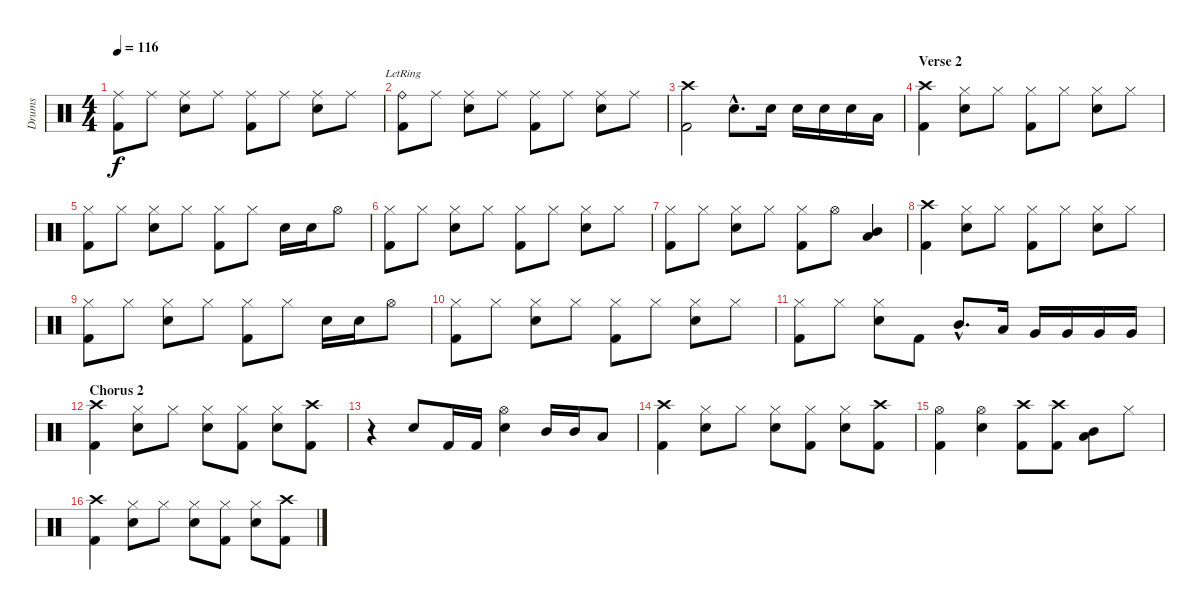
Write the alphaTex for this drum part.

\track ("Drums" "Drums") {instrument percussion}
\staff {score}
\articulation defaults
\ts (4 4)
\tempo 116
\clef neutral
\ks c
("Ride (middle)" "Kick (hit) 2").8{dy f} "Ride (middle)".8 ("Ride (middle)" "Snare (hit) 2").8 "Ride (middle)".8 ("Ride (middle)" "Kick (hit) 2").8 "Ride (middle)".8 ("Ride (middle)" "Snare (hit) 2").8 "Ride (middle)".8 |
("Ride (bell)"{lr} "Kick (hit) 2").8 "Ride (middle)".8 ("Ride (middle)" "Snare (hit) 2").8 "Ride (middle)".8 ("Ride (middle)" "Kick (hit) 2").8 "Ride (middle)".8 ("Ride (middle)" "Snare (hit) 2").8 "Ride (middle)".8 |
("Crash high (hit)" "Kick (hit) 2").2 "Snare (hit) 2"{hac}.8{d} "Snare (hit) 2".16 "Snare (hit) 2".16 "Snare (hit) 2".16 "Snare (hit) 2".16 "Low Tom (hit)".16 |
\section ("" "Verse 2")
("Crash high (hit)" "Kick (hit) 2").4 ("Hi-Hat (closed)" "Snare (hit) 2").8 "Hi-Hat (closed)".8 ("Hi-Hat (closed)" "Kick (hit) 2").8 "Hi-Hat (closed)".8 ("Hi-Hat (closed)" "Snare (hit) 2").8 "Hi-Hat (closed)".8 |
("Hi-Hat (closed)" "Kick (hit) 2").8 "Hi-Hat (closed)".8 ("Hi-Hat (closed)" "Snare (hit) 2").8 "Hi-Hat (closed)".8 ("Hi-Hat (closed)" "Kick (hit) 2").8 "Hi-Hat (closed)".8 "Snare (hit) 2".16 "Snare (hit) 2".16 "Hi-Hat (open)".8 |
("Hi-Hat (closed)" "Kick (hit) 2").8 "Hi-Hat (closed)".8 ("Hi-Hat (closed)" "Snare (hit) 2").8 "Hi-Hat (closed)".8 ("Hi-Hat (closed)" "Kick (hit) 2").8 "Hi-Hat (closed)".8 ("Hi-Hat (closed)" "Snare (hit) 2").8 "Hi-Hat (closed)".8 |
("Hi-Hat (closed)" "Kick (hit) 2").8 "Hi-Hat (closed)".8 ("Hi-Hat (closed)" "Snare (hit) 2").8 "Hi-Hat (closed)".8 ("Hi-Hat (closed)" "Kick (hit) 2").8 "Hi-Hat (open)".8 ("Low Tom (hit)" "Mid Tom (hit)").4 |
("Crash high (hit)" "Kick (hit) 2").4 ("Hi-Hat (closed)" "Snare (hit) 2").8 "Hi-Hat (closed)".8 ("Hi-Hat (closed)" "Kick (hit) 2").8 "Hi-Hat (closed)".8 ("Hi-Hat (closed)" "Snare (hit) 2").8 "Hi-Hat (closed)".8 |
("Hi-Hat (closed)" "Kick (hit) 2").8 "Hi-Hat (closed)".8 ("Hi-Hat (closed)" "Snare (hit) 2").8 "Hi-Hat (closed)".8 ("Hi-Hat (closed)" "Kick (hit) 2").8 "Hi-Hat (closed)".8 "Snare (hit) 2".16 "Snare (hit) 2".16 "Hi-Hat (open)".8 |
("Hi-Hat (closed)" "Kick (hit) 2").8 "Hi-Hat (closed)".8 ("Hi-Hat (closed)" "Snare (hit) 2").8 "Hi-Hat (closed)".8 ("Hi-Hat (closed)" "Kick (hit) 2").8 "Hi-Hat (closed)".8 ("Hi-Hat (closed)" "Snare (hit) 2").8 "Hi-Hat (closed)".8 |
("Hi-Hat (closed)" "Kick (hit) 2").8 "Hi-Hat (closed)".8 ("Hi-Hat (closed)" "Snare (hit) 2").8 "Kick (hit) 2".8 "Mid Tom (hit)"{hac}.8{d} "Low Tom (hit)".16 "Very Low Tom (hit)".16 "Very Low Tom (hit)".16 "Very Low Tom (hit)".16 "Very Low Tom (hit)".16 |
\section ("" "Chorus 2")
("Crash high (hit)" "Kick (hit) 2").4 ("Hi-Hat (closed)" "Snare (hit) 2").8 "Hi-Hat (closed)".8 ("Hi-Hat (closed)" "Snare (hit) 2").8 ("Hi-Hat (closed)" "Kick (hit) 2").8 ("Hi-Hat (closed)" "Snare (hit) 2").8 ("Crash high (hit)" "Kick (hit) 2").8 |
r.4 "Snare (hit) 2".8 "Kick (hit) 2".16 "Kick (hit) 2".16 ("Hi-Hat (open)" "Snare (hit) 2").4 "Mid Tom (hit)".16 "Mid Tom (hit)".16 "Low Tom (hit)".8 |
("Crash high (hit)" "Kick (hit) 2").4 ("Hi-Hat (closed)" "Snare (hit) 2").8 "Hi-Hat (closed)".8 ("Hi-Hat (closed)" "Snare (hit) 2").8 ("Hi-Hat (closed)" "Kick (hit) 2").8 ("Hi-Hat (closed)" "Snare (hit) 2").8 ("Crash high (hit)" "Kick (hit) 2").8 |
("Hi-Hat (open)" "Kick (hit) 2").4 ("Hi-Hat (open)" "Snare (hit) 2").4 ("Crash high (hit)" "Kick (hit) 2").8 ("Crash high (hit)" "Kick (hit) 2").8 ("Low Tom (hit)" "Mid Tom (hit)").8 "Hi-Hat (closed)".8 |
("Crash high (hit)" "Kick (hit) 2").4 ("Hi-Hat (closed)" "Snare (hit) 2").8 "Hi-Hat (closed)".8 ("Hi-Hat (closed)" "Snare (hit) 2").8 ("Hi-Hat (closed)" "Kick (hit) 2").8 ("Hi-Hat (closed)" "Snare (hit) 2").8 ("Crash high (hit)" "Kick (hit) 2").8
